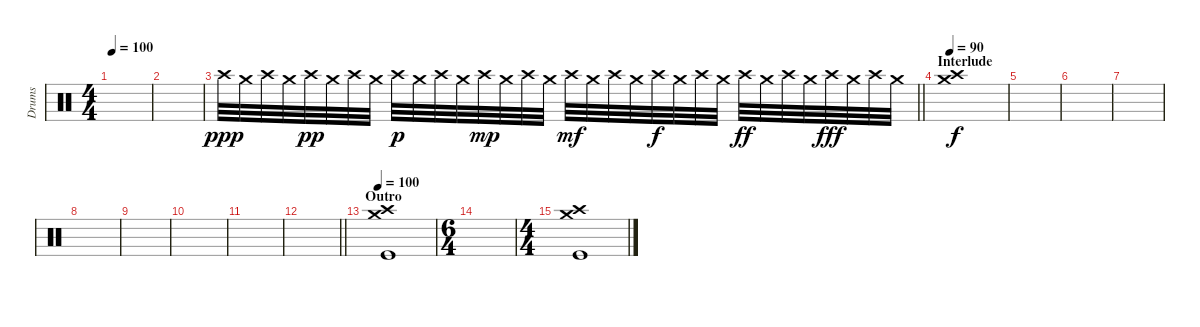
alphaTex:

\track ("Drums" "Drums") {instrument percussion}
\staff {score}
\articulation defaults
\ts (4 4)
\tempo 100
\clef neutral
\ks c
|
|
\barLineRight lightlight "Crash high (hit)".32{dy ppp} "Crash medium (hit)".32 "Crash high (hit)".32 "Crash medium (hit)".32 "Crash high (hit)".32{dy pp} "Crash medium (hit)".32 "Crash high (hit)".32 "Crash medium (hit)".32 "Crash high (hit)".32{dy p} "Crash medium (hit)".32 "Crash high (hit)".32 "Crash medium (hit)".32 "Crash high (hit)".32{dy mp} "Crash medium (hit)".32 "Crash high (hit)".32 "Crash medium (hit)".32 "Crash high (hit)".32{dy mf} "Crash medium (hit)".32 "Crash high (hit)".32 "Crash medium (hit)".32 "Crash high (hit)".32{dy f} "Crash medium (hit)".32 "Crash high (hit)".32 "Crash medium (hit)".32 "Crash high (hit)".32{dy ff} "Crash medium (hit)".32 "Crash high (hit)".32 "Crash medium (hit)".32 "Crash high (hit)".32{dy fff} "Crash medium (hit)".32 "Crash high (hit)".32 "Crash medium (hit)".32
|
\section ("" "Interlude")
\tempo 90
("Crash high (hit)" "Crash medium (hit)").1{dy f} |
|
|
|
|
|
|
|
\barLineRight lightlight
|
\section ("" "Outro")
\tempo 100
("Crash high (hit)" "Crash medium (hit)" "Kick (hit)").1 |
\ts (6 4)
|
\ts (4 4)
("Crash high (hit)" "Crash medium (hit)" "Kick (hit)").1
